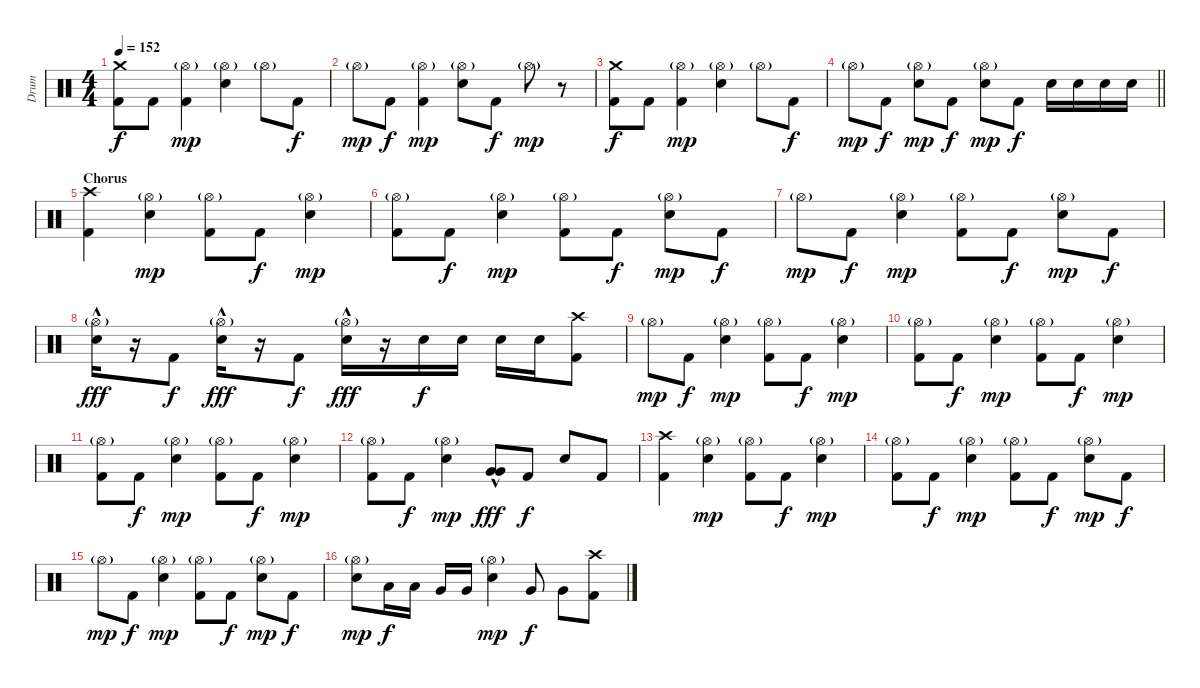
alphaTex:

\track ("Drum" "Drum") {instrument percussion}
\staff {score}
\articulation defaults
\ts (4 4)
\tempo 152
\clef neutral
\ks c
("Crash medium (hit)" "Kick (hit) 2").8{dy f} "Kick (hit) 2".8 ("Hi-Hat (open)"{g} "Kick (hit) 2").4{dy mp} ("Hi-Hat (open)"{g} "Electric Snare (hit)").4 "Hi-Hat (open)"{g}.8 "Kick (hit) 2".8{dy f} |
"Hi-Hat (open)"{g}.8{dy mp} "Kick (hit) 2".8{dy f} ("Hi-Hat (open)"{g} "Kick (hit) 2").4{dy mp} ("Hi-Hat (open)"{g} "Electric Snare (hit)").8 "Kick (hit) 2".8{dy f} "Hi-Hat (open)"{g}.8{dy mp} r.8 |
("Crash medium (hit)" "Kick (hit) 2").8{dy f} "Kick (hit) 2".8 ("Hi-Hat (open)"{g} "Kick (hit) 2").4{dy mp} ("Hi-Hat (open)"{g} "Electric Snare (hit)").4 "Hi-Hat (open)"{g}.8 "Kick (hit) 2".8{dy f} |
\barLineRight lightlight "Hi-Hat (open)"{g}.8{dy mp} "Kick (hit) 2".8{dy f}
("Hi-Hat (open)"{g} "Electric Snare (hit)").8{dy mp} "Kick (hit) 2".8{dy f} ("Hi-Hat (open)"{g} "Electric Snare (hit)").8{dy mp} "Kick (hit) 2".8{dy f} "Electric Snare (hit)".16 "Electric Snare (hit)".16 "Electric Snare (hit)".16 "Electric Snare (hit)".16 |
\section ("" "Chorus")
("Crash high (hit)" "Kick (hit) 2").4 ("Hi-Hat (open)"{g} "Electric Snare (hit)").4{dy mp} ("Hi-Hat (open)"{g} "Kick (hit) 2").8 "Kick (hit) 2".8{dy f} ("Hi-Hat (open)"{g} "Electric Snare (hit)").4{dy mp} |
("Hi-Hat (open)"{g} "Kick (hit) 2").8 "Kick (hit) 2".8{dy f} ("Hi-Hat (open)"{g} "Electric Snare (hit)").4{dy mp} ("Hi-Hat (open)"{g} "Kick (hit) 2").8 "Kick (hit) 2".8{dy f} ("Hi-Hat (open)"{g} "Electric Snare (hit)").8{dy mp} "Kick (hit) 2".8{dy f} |
"Hi-Hat (open)"{g}.8{dy mp} "Kick (hit) 2".8{dy f} ("Hi-Hat (open)"{g} "Electric Snare (hit)").4{dy mp} ("Hi-Hat (open)"{g} "Kick (hit) 2").8 "Kick (hit) 2".8{dy f} ("Hi-Hat (open)"{g} "Electric Snare (hit)").8{dy mp} "Kick (hit) 2".8{dy f} |
("Hi-Hat (open)"{g} "Electric Snare (hit)"{hac}).16{dy fff} r.16{volume 0} "Kick (hit) 2".8{dy f volume 16} ("Hi-Hat (open)"{g} "Electric Snare (hit)"{hac}).16{dy fff} r.16{volume 0} "Kick (hit) 2".8{dy f volume 16} ("Hi-Hat (open)"{g} "Electric Snare (hit)"{hac}).16{dy fff} r.16{volume 0} "Electric Snare (hit)".16{dy f volume 16} "Electric Snare (hit)".16 "Electric Snare (hit)".16 "Electric Snare (hit)".16 ("Crash high (hit)" "Kick (hit) 2").8 |
"Hi-Hat (open)"{g}.8{dy mp} "Kick (hit) 2".8{dy f} ("Hi-Hat (open)"{g} "Electric Snare (hit)").4{dy mp} ("Hi-Hat (open)"{g} "Kick (hit) 2").8 "Kick (hit) 2".8{dy f} ("Hi-Hat (open)"{g} "Electric Snare (hit)").4{dy mp} |
("Hi-Hat (open)"{g} "Kick (hit) 2").8 "Kick (hit) 2".8{dy f} ("Hi-Hat (open)"{g} "Electric Snare (hit)").4{dy mp} ("Hi-Hat (open)"{g} "Kick (hit) 2").8 "Kick (hit) 2".8{dy f} ("Hi-Hat (open)"{g} "Electric Snare (hit)").4{dy mp} |
("Hi-Hat (open)"{g} "Kick (hit) 2").8 "Kick (hit) 2".8{dy f} ("Hi-Hat (open)"{g} "Electric Snare (hit)").4{dy mp} ("Hi-Hat (open)"{g} "Kick (hit) 2").8 "Kick (hit) 2".8{dy f} ("Hi-Hat (open)"{g} "Electric Snare (hit)").4{dy mp} |
("Hi-Hat (open)"{g} "Kick (hit) 2").8 "Kick (hit) 2".8{dy f} ("Hi-Hat (open)"{g} "Electric Snare (hit)").4{dy mp} ("Very Low Tom (hit)"{hac} "Very Low Tom (hit)"{hac}).8{dy fff} "Kick (hit) 2".8{dy f} "Electric Snare (hit)".8 "Kick (hit) 2".8 |
("Crash high (hit)" "Kick (hit) 2").4 ("Hi-Hat (open)"{g} "Electric Snare (hit)").4{dy mp} ("Hi-Hat (open)"{g} "Kick (hit) 2").8 "Kick (hit) 2".8{dy f} ("Hi-Hat (open)"{g} "Electric Snare (hit)").4{dy mp} |
("Hi-Hat (open)"{g} "Kick (hit) 2").8 "Kick (hit) 2".8{dy f} ("Hi-Hat (open)"{g} "Electric Snare (hit)").4{dy mp} ("Hi-Hat (open)"{g} "Kick (hit) 2").8 "Kick (hit) 2".8{dy f} ("Hi-Hat (open)"{g} "Electric Snare (hit)").8{dy mp} "Kick (hit) 2".8{dy f} |
"Hi-Hat (open)"{g}.8{dy mp} "Kick (hit) 2".8{dy f} ("Hi-Hat (open)"{g} "Electric Snare (hit)").4{dy mp} ("Hi-Hat (open)"{g} "Kick (hit) 2").8 "Kick (hit) 2".8{dy f} ("Hi-Hat (open)"{g} "Electric Snare (hit)").8{dy mp} "Kick (hit) 2".8{dy f} |
("Hi-Hat (open)"{g} "Electric Snare (hit)").8{dy mp} "Low Tom (hit)".16{dy f} "Low Tom (hit)".16 "Very Low Tom (hit)".16 "Very Low Tom (hit)".16 ("Hi-Hat (open)"{g} "Electric Snare (hit)").4{dy mp} "Very Low Tom (hit)".8{dy f} "Very Low Tom (hit)".8 ("Crash high (hit)" "Kick (hit) 2").8
